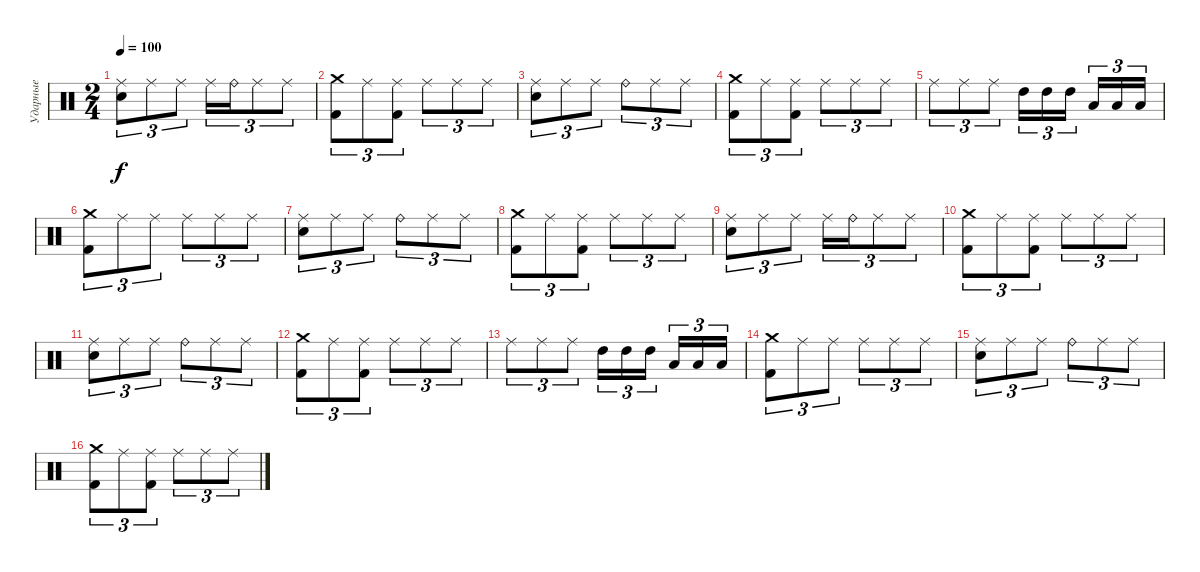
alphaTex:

\track ("Ударные" "Ударные") {instrument percussion}
\staff {score}
\articulation defaults
\ts (2 4)
\tempo 100
\clef neutral
\ks c
("Ride (middle)" "Electric Snare (hit)").8{tu (3 2) dy f} "Ride (middle)".8{tu (3 2)} "Ride (middle)".8{tu (3 2)} "Ride (middle)".16{tu (3 2)} "Ride (bell)".16{tu (3 2)} "Ride (middle)".8{tu (3 2)} "Ride (middle)".8{tu (3 2)} |
("Crash medium (hit)" "Kick (hit) 2").8{tu (3 2)} "Ride (middle)".8{tu (3 2)} ("Ride (middle)" "Kick (hit) 2").8{tu (3 2)} "Ride (middle)".8{tu (3 2)} "Ride (middle)".8{tu (3 2)} "Ride (middle)".8{tu (3 2)} |
("Ride (middle)" "Electric Snare (hit)").8{tu (3 2)} "Ride (middle)".8{tu (3 2)} "Ride (middle)".8{tu (3 2)} "Ride (bell)".8{tu (3 2)} "Ride (middle)".8{tu (3 2)} "Ride (middle)".8{tu (3 2)} |
("Crash medium (hit)" "Kick (hit) 2").8{tu (3 2)} "Ride (middle)".8{tu (3 2)} ("Ride (middle)" "Kick (hit) 2").8{tu (3 2)} "Ride (middle)".8{tu (3 2)} "Ride (middle)".8{tu (3 2)} "Ride (middle)".8{tu (3 2)} |
"Ride (middle)".8{tu (3 2)} "Ride (middle)".8{tu (3 2)} "Ride (middle)".8{tu (3 2)} "High Tom (hit)".16{tu (3 2)} "High Tom (hit)".16{tu (3 2)} "High Tom (hit)".16{tu (3 2) beam splitsecondary} "Low Tom (hit)".16{tu (3 2)} "Low Tom (hit)".16{tu (3 2)} "Low Tom (hit)".16{tu (3 2)} |
("Crash medium (hit)" "Kick (hit) 2").8{tu (3 2)} "Ride (middle)".8{tu (3 2)} "Ride (middle)".8{tu (3 2)} "Ride (middle)".8{tu (3 2)} "Ride (middle)".8{tu (3 2)} "Ride (middle)".8{tu (3 2)} |
("Ride (middle)" "Electric Snare (hit)").8{tu (3 2)} "Ride (middle)".8{tu (3 2)} "Ride (middle)".8{tu (3 2)} "Ride (bell)".8{tu (3 2)} "Ride (middle)".8{tu (3 2)} "Ride (middle)".8{tu (3 2)} |
("Crash medium (hit)" "Kick (hit) 2").8{tu (3 2)} "Ride (middle)".8{tu (3 2)} ("Ride (middle)" "Kick (hit) 2").8{tu (3 2)} "Ride (middle)".8{tu (3 2)} "Ride (middle)".8{tu (3 2)} "Ride (middle)".8{tu (3 2)} |
("Ride (middle)" "Electric Snare (hit)").8{tu (3 2)} "Ride (middle)".8{tu (3 2)} "Ride (middle)".8{tu (3 2)} "Ride (middle)".16{tu (3 2)} "Ride (bell)".16{tu (3 2)} "Ride (middle)".8{tu (3 2)} "Ride (middle)".8{tu (3 2)} |
("Crash medium (hit)" "Kick (hit) 2").8{tu (3 2)} "Ride (middle)".8{tu (3 2)} ("Ride (middle)" "Kick (hit) 2").8{tu (3 2)} "Ride (middle)".8{tu (3 2)} "Ride (middle)".8{tu (3 2)} "Ride (middle)".8{tu (3 2)} |
("Ride (middle)" "Electric Snare (hit)").8{tu (3 2)} "Ride (middle)".8{tu (3 2)} "Ride (middle)".8{tu (3 2)} "Ride (bell)".8{tu (3 2)} "Ride (middle)".8{tu (3 2)} "Ride (middle)".8{tu (3 2)} |
("Crash medium (hit)" "Kick (hit) 2").8{tu (3 2)} "Ride (middle)".8{tu (3 2)} ("Ride (middle)" "Kick (hit) 2").8{tu (3 2)} "Ride (middle)".8{tu (3 2)} "Ride (middle)".8{tu (3 2)} "Ride (middle)".8{tu (3 2)} |
"Ride (middle)".8{tu (3 2)} "Ride (middle)".8{tu (3 2)} "Ride (middle)".8{tu (3 2)} "High Tom (hit)".16{tu (3 2)} "High Tom (hit)".16{tu (3 2)} "High Tom (hit)".16{tu (3 2) beam splitsecondary} "Low Tom (hit)".16{tu (3 2)} "Low Tom (hit)".16{tu (3 2)} "Low Tom (hit)".16{tu (3 2)} |
("Crash medium (hit)" "Kick (hit) 2").8{tu (3 2)} "Ride (middle)".8{tu (3 2)} "Ride (middle)".8{tu (3 2)} "Ride (middle)".8{tu (3 2)} "Ride (middle)".8{tu (3 2)} "Ride (middle)".8{tu (3 2)} |
("Ride (middle)" "Electric Snare (hit)").8{tu (3 2)} "Ride (middle)".8{tu (3 2)} "Ride (middle)".8{tu (3 2)} "Ride (bell)".8{tu (3 2)} "Ride (middle)".8{tu (3 2)} "Ride (middle)".8{tu (3 2)} |
("Crash medium (hit)" "Kick (hit) 2").8{tu (3 2)} "Ride (middle)".8{tu (3 2)} ("Ride (middle)" "Kick (hit) 2").8{tu (3 2)} "Ride (middle)".8{tu (3 2)} "Ride (middle)".8{tu (3 2)} "Ride (middle)".8{tu (3 2)}
